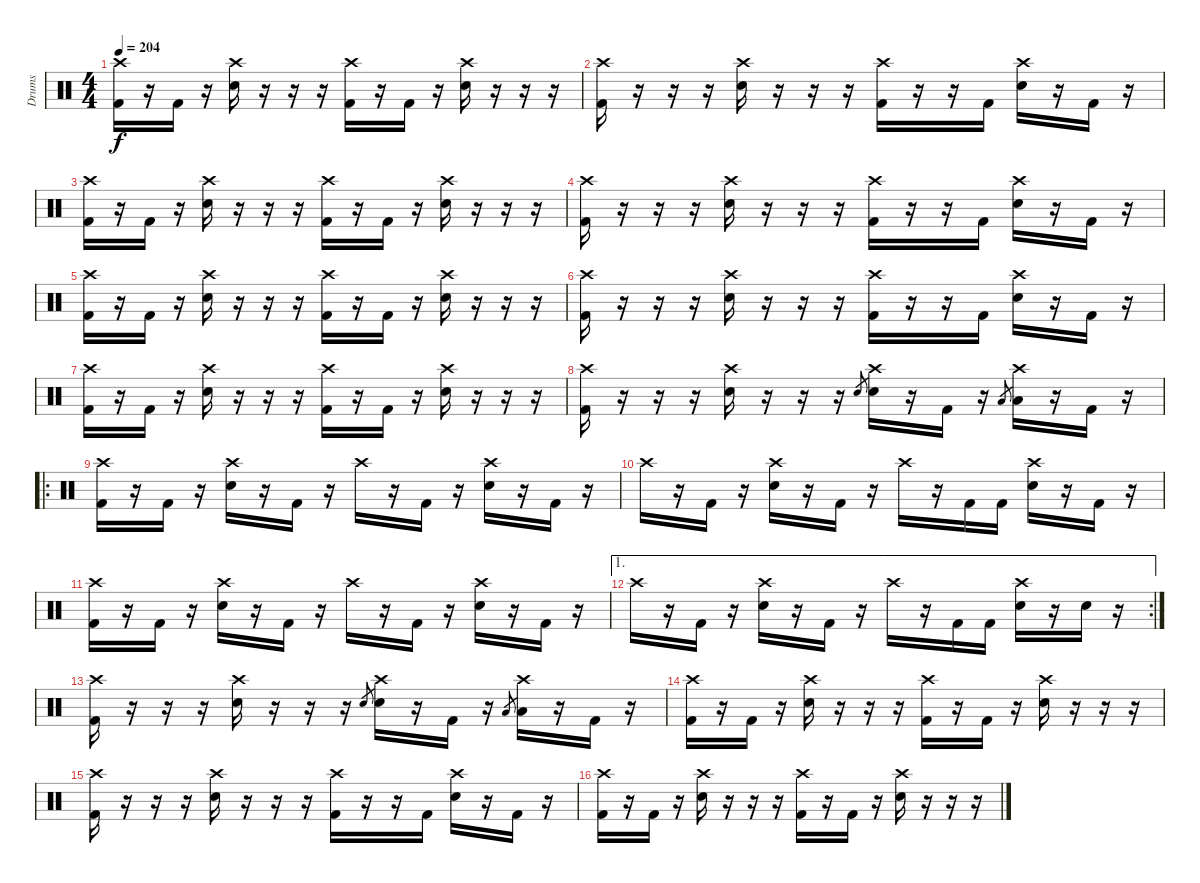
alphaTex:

\track ("Drums" "Drums") {instrument percussion}
\staff {score}
\articulation defaults
\ts (4 4)
\tempo 204
\clef neutral
\ks c
("Crash high (hit)" "Kick (hit) 2").16{dy f} r.16 "Kick (hit) 2".16 r.16 ("Crash high (hit)" "Snare (hit) 2").16 r.16 r.16 r.16 ("Crash high (hit)" "Kick (hit) 2").16 r.16 "Kick (hit) 2".16 r.16 ("Crash high (hit)" "Snare (hit) 2").16 r.16 r.16 r.16 |
("Crash high (hit)" "Kick (hit) 2").16 r.16 r.16 r.16 ("Crash high (hit)" "Snare (hit) 2").16 r.16 r.16 r.16 ("Crash high (hit)" "Kick (hit) 2").16 r.16 r.16 "Kick (hit) 2".16 ("Crash high (hit)" "Snare (hit) 2").16 r.16 "Kick (hit) 2".16 r.16 |
("Crash high (hit)" "Kick (hit) 2").16 r.16 "Kick (hit) 2".16 r.16 ("Crash high (hit)" "Snare (hit) 2").16 r.16 r.16 r.16 ("Crash high (hit)" "Kick (hit) 2").16 r.16 "Kick (hit) 2".16 r.16 ("Crash high (hit)" "Snare (hit) 2").16 r.16 r.16 r.16 |
("Crash high (hit)" "Kick (hit) 2").16 r.16 r.16 r.16 ("Crash high (hit)" "Snare (hit) 2").16 r.16 r.16 r.16 ("Crash high (hit)" "Kick (hit) 2").16 r.16 r.16 "Kick (hit) 2".16 ("Crash high (hit)" "Snare (hit) 2").16 r.16 "Kick (hit) 2".16 r.16 |
("Crash high (hit)" "Kick (hit) 2").16 r.16 "Kick (hit) 2".16 r.16 ("Crash high (hit)" "Snare (hit) 2").16 r.16 r.16 r.16 ("Crash high (hit)" "Kick (hit) 2").16 r.16 "Kick (hit) 2".16 r.16 ("Crash high (hit)" "Snare (hit) 2").16 r.16 r.16 r.16 |
("Crash high (hit)" "Kick (hit) 2").16 r.16 r.16 r.16 ("Crash high (hit)" "Snare (hit) 2").16 r.16 r.16 r.16 ("Crash high (hit)" "Kick (hit) 2").16 r.16 r.16 "Kick (hit) 2".16 ("Crash high (hit)" "Snare (hit) 2").16 r.16 "Kick (hit) 2".16 r.16 |
("Crash high (hit)" "Kick (hit) 2").16 r.16 "Kick (hit) 2".16 r.16 ("Crash high (hit)" "Snare (hit) 2").16 r.16 r.16 r.16 ("Crash high (hit)" "Kick (hit) 2").16 r.16 "Kick (hit) 2".16 r.16 ("Crash high (hit)" "Snare (hit) 2").16 r.16 r.16 r.16 |
("Crash high (hit)" "Kick (hit) 2").16 r.16 r.16 r.16 ("Crash high (hit)" "Snare (hit) 2").16 r.16 r.16 r.16 "Snare (hit) 2".8{gr} ("Crash high (hit)" "Snare (hit) 2").16 r.16 "Kick (hit) 2".16 r.16 "Low Tom (hit)".8{gr} ("Crash high (hit)" "Low Tom (hit)").16 r.16 "Kick (hit) 2".16 r.16 |
\ro
("Crash high (hit)" "Kick (hit) 2").16 r.16 "Kick (hit) 2".16 r.16 ("Crash high (hit)" "Snare (hit) 2").16 r.16 "Kick (hit) 2".16 r.16 "Crash high (hit)".16 r.16 "Kick (hit) 2".16 r.16 ("Crash high (hit)" "Snare (hit) 2").16 r.16 "Kick (hit) 2".16 r.16 |
"Crash high (hit)".16 r.16 "Kick (hit) 2".16 r.16 ("Crash high (hit)" "Snare (hit) 2").16 r.16 "Kick (hit) 2".16 r.16 "Crash high (hit)".16 r.16 "Kick (hit) 2".16 "Kick (hit) 2".16 ("Crash high (hit)" "Snare (hit) 2").16 r.16 "Kick (hit) 2".16 r.16 |
("Crash high (hit)" "Kick (hit) 2").16 r.16 "Kick (hit) 2".16 r.16 ("Crash high (hit)" "Snare (hit) 2").16 r.16 "Kick (hit) 2".16 r.16 "Crash high (hit)".16 r.16 "Kick (hit) 2".16 r.16 ("Crash high (hit)" "Snare (hit) 2").16 r.16 "Kick (hit) 2".16 r.16 |
\ae 1
\rc 2 "Crash high (hit)".16
r.16 "Kick (hit) 2".16 r.16 ("Crash high (hit)" "Snare (hit) 2").16 r.16 "Kick (hit) 2".16 r.16 "Crash high (hit)".16 r.16 "Kick (hit) 2".16 "Kick (hit) 2".16 ("Crash high (hit)" "Snare (hit) 2").16 r.16 "Snare (hit) 2".16 r.16 |
("Crash high (hit)" "Kick (hit) 2").16 r.16 r.16 r.16 ("Crash high (hit)" "Snare (hit) 2").16 r.16 r.16 r.16 "Snare (hit) 2".8{gr} ("Crash high (hit)" "Snare (hit) 2").16 r.16 "Kick (hit) 2".16 r.16 "Low Tom (hit)".8{gr} ("Crash high (hit)" "Low Tom (hit)").16 r.16 "Kick (hit) 2".16 r.16 |
("Crash high (hit)" "Kick (hit) 2").16 r.16 "Kick (hit) 2".16 r.16 ("Crash high (hit)" "Snare (hit) 2").16 r.16 r.16 r.16 ("Crash high (hit)" "Kick (hit) 2").16 r.16 "Kick (hit) 2".16 r.16 ("Crash high (hit)" "Snare (hit) 2").16 r.16 r.16 r.16 |
("Crash high (hit)" "Kick (hit) 2").16 r.16 r.16 r.16 ("Crash high (hit)" "Snare (hit) 2").16 r.16 r.16 r.16 ("Crash high (hit)" "Kick (hit) 2").16 r.16 r.16 "Kick (hit) 2".16 ("Crash high (hit)" "Snare (hit) 2").16 r.16 "Kick (hit) 2".16 r.16 |
("Crash high (hit)" "Kick (hit) 2").16 r.16 "Kick (hit) 2".16 r.16 ("Crash high (hit)" "Snare (hit) 2").16 r.16 r.16 r.16 ("Crash high (hit)" "Kick (hit) 2").16 r.16 "Kick (hit) 2".16 r.16 ("Crash high (hit)" "Snare (hit) 2").16 r.16 r.16 r.16
